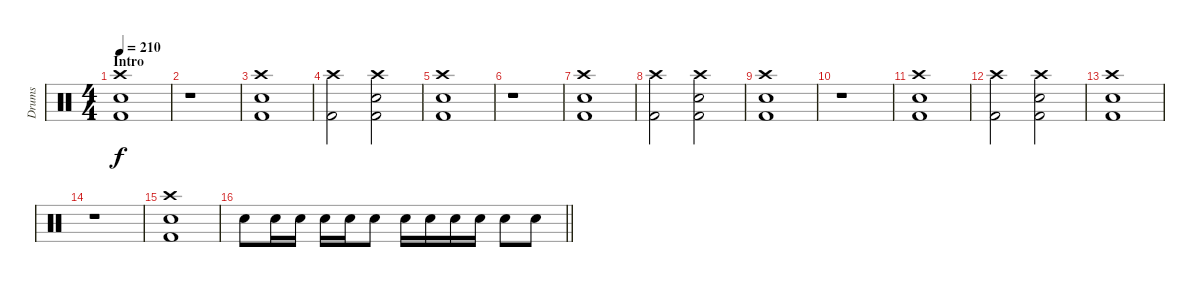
\track ("Drums" "Drums") {instrument percussion}
\staff {score}
\articulation defaults
\ts (4 4)
\section ("" "Intro")
\tempo 210
\clef neutral
\ks c
("Crash high (hit)" "Snare (hit) 2" "Kick (hit) 2").1{dy f} |
r.1 |
("Crash high (hit)" "Snare (hit) 2" "Kick (hit) 2").1 |
("Crash high (hit)" "Kick (hit) 2").2 ("Crash high (hit)" "Snare (hit) 2" "Kick (hit) 2").2 |
("Crash high (hit)" "Snare (hit) 2" "Kick (hit) 2").1 |
r.1 |
("Crash high (hit)" "Snare (hit) 2" "Kick (hit) 2").1 |
("Crash high (hit)" "Kick (hit) 2").2 ("Crash high (hit)" "Snare (hit) 2" "Kick (hit) 2").2 |
("Crash high (hit)" "Snare (hit) 2" "Kick (hit) 2").1 |
r.1 |
("Crash high (hit)" "Snare (hit) 2" "Kick (hit) 2").1 |
("Crash high (hit)" "Kick (hit) 2").2 ("Crash high (hit)" "Snare (hit) 2" "Kick (hit) 2").2 |
("Crash high (hit)" "Snare (hit) 2" "Kick (hit) 2").1 |
r.1 |
("Crash high (hit)" "Snare (hit) 2" "Kick (hit) 2").1 |
\barLineRight lightlight "Snare (hit) 2".8 "Snare (hit) 2".16 "Snare (hit) 2".16 "Snare (hit) 2".16 "Snare (hit) 2".16 "Snare (hit) 2".8 "Snare (hit) 2".16 "Snare (hit) 2".16 "Snare (hit) 2".16 "Snare (hit) 2".16 "Snare (hit) 2".8 "Snare (hit) 2".8
